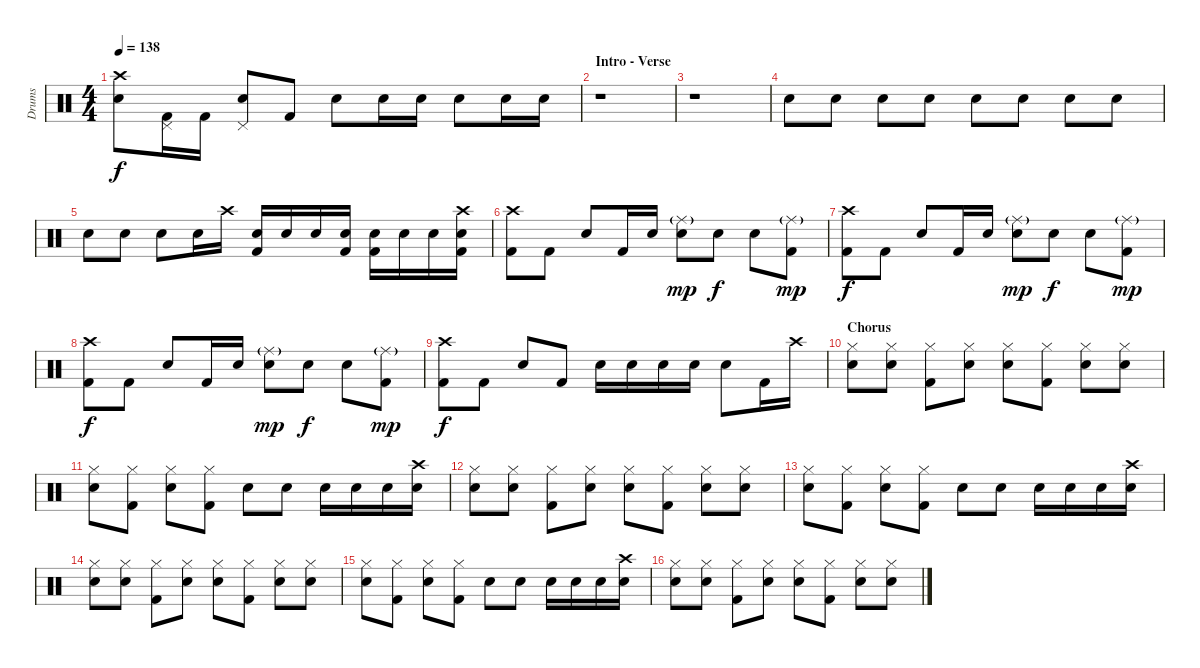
\track ("Drums" "Drums") {instrument percussion}
\staff {score}
\articulation defaults
\ts (4 4)
\tempo 138
\clef neutral
\ks c
("Crash high (hit)" "Electric Snare (hit)").8{dy f} ("Pedal Hi-Hat (hit)" "Kick (hit) 2").16 "Kick (hit) 2".16 ("Pedal Hi-Hat (hit)" "Electric Snare (hit)").8 "Kick (hit) 2".8 "Electric Snare (hit)".8 "Electric Snare (hit)".16 "Electric Snare (hit)".16 "Electric Snare (hit)".8 "Electric Snare (hit)".16 "Electric Snare (hit)".16 |
\section ("" "Intro - Verse")
r.1 |
r.1 |
"Electric Snare (hit)".8{volume 12} "Electric Snare (hit)".8 "Electric Snare (hit)".8 "Electric Snare (hit)".8 "Electric Snare (hit)".8 "Electric Snare (hit)".8 "Electric Snare (hit)".8 "Electric Snare (hit)".8 |
"Electric Snare (hit)".8 "Electric Snare (hit)".8 "Electric Snare (hit)".8 "Electric Snare (hit)".16 "Crash high (hit)".16 ("Electric Snare (hit)" "Kick (hit) 2").16 "Electric Snare (hit)".16 "Electric Snare (hit)".16 ("Electric Snare (hit)" "Kick (hit) 2").16 ("Electric Snare (hit)" "Kick (hit) 2").16 "Electric Snare (hit)".16 "Electric Snare (hit)".16 ("Crash high (hit)" "Electric Snare (hit)" "Kick (hit) 2").16 |
("Crash high (hit)" "Kick (hit) 2").8 "Kick (hit) 2".8 "Electric Snare (hit)".8 "Kick (hit) 2".16 "Electric Snare (hit)".16 ("Ride (middle)"{g} "Electric Snare (hit)").8{dy mp} "Electric Snare (hit)".8{dy f} "Electric Snare (hit)".8 ("Ride (middle)"{g} "Kick (hit) 2").8{dy mp} |
("Crash high (hit)" "Kick (hit) 2").8{dy f} "Kick (hit) 2".8 "Electric Snare (hit)".8 "Kick (hit) 2".16 "Electric Snare (hit)".16 ("Ride (middle)"{g} "Electric Snare (hit)").8{dy mp} "Electric Snare (hit)".8{dy f} "Electric Snare (hit)".8 ("Ride (middle)"{g} "Kick (hit) 2").8{dy mp} |
("Crash high (hit)" "Kick (hit) 2").8{dy f} "Kick (hit) 2".8 "Electric Snare (hit)".8 "Kick (hit) 2".16 "Electric Snare (hit)".16 ("Ride (middle)"{g} "Electric Snare (hit)").8{dy mp} "Electric Snare (hit)".8{dy f} "Electric Snare (hit)".8 ("Ride (middle)"{g} "Kick (hit) 2").8{dy mp} |
("Crash high (hit)" "Kick (hit) 2").8{dy f} "Kick (hit) 2".8 "Electric Snare (hit)".8 "Kick (hit) 2".8 "Electric Snare (hit)".16 "Electric Snare (hit)".16 "Electric Snare (hit)".16 "Electric Snare (hit)".16 "Electric Snare (hit)".8 "Kick (hit) 2".16 "Crash high (hit)".16 |
\section ("" "Chorus")
("Hi-Hat (closed)" "Electric Snare (hit)").8 ("Hi-Hat (closed)" "Electric Snare (hit)").8 ("Hi-Hat (closed)" "Kick (hit) 2").8 ("Hi-Hat (closed)" "Electric Snare (hit)").8 ("Hi-Hat (closed)" "Electric Snare (hit)").8 ("Hi-Hat (closed)" "Kick (hit) 2").8 ("Hi-Hat (closed)" "Electric Snare (hit)").8 ("Hi-Hat (closed)" "Electric Snare (hit)").8 |
("Hi-Hat (closed)" "Electric Snare (hit)").8 ("Hi-Hat (closed)" "Kick (hit) 2").8 ("Hi-Hat (closed)" "Electric Snare (hit)").8 ("Hi-Hat (closed)" "Kick (hit) 2").8 "Electric Snare (hit)".8 "Electric Snare (hit)".8 "Electric Snare (hit)".16 "Electric Snare (hit)".16 "Electric Snare (hit)".16 ("Crash high (hit)" "Electric Snare (hit)").16 |
("Hi-Hat (closed)" "Electric Snare (hit)").8 ("Hi-Hat (closed)" "Electric Snare (hit)").8 ("Hi-Hat (closed)" "Kick (hit) 2").8 ("Hi-Hat (closed)" "Electric Snare (hit)").8 ("Hi-Hat (closed)" "Electric Snare (hit)").8 ("Hi-Hat (closed)" "Kick (hit) 2").8 ("Hi-Hat (closed)" "Electric Snare (hit)").8 ("Hi-Hat (closed)" "Electric Snare (hit)").8 |
("Hi-Hat (closed)" "Electric Snare (hit)").8 ("Hi-Hat (closed)" "Kick (hit) 2").8 ("Hi-Hat (closed)" "Electric Snare (hit)").8 ("Hi-Hat (closed)" "Kick (hit) 2").8 "Electric Snare (hit)".8 "Electric Snare (hit)".8 "Electric Snare (hit)".16 "Electric Snare (hit)".16 "Electric Snare (hit)".16 ("Crash high (hit)" "Electric Snare (hit)").16 |
("Hi-Hat (closed)" "Electric Snare (hit)").8 ("Hi-Hat (closed)" "Electric Snare (hit)").8 ("Hi-Hat (closed)" "Kick (hit) 2").8 ("Hi-Hat (closed)" "Electric Snare (hit)").8 ("Hi-Hat (closed)" "Electric Snare (hit)").8 ("Hi-Hat (closed)" "Kick (hit) 2").8 ("Hi-Hat (closed)" "Electric Snare (hit)").8 ("Hi-Hat (closed)" "Electric Snare (hit)").8 |
("Hi-Hat (closed)" "Electric Snare (hit)").8 ("Hi-Hat (closed)" "Kick (hit) 2").8 ("Hi-Hat (closed)" "Electric Snare (hit)").8 ("Hi-Hat (closed)" "Kick (hit) 2").8 "Electric Snare (hit)".8 "Electric Snare (hit)".8 "Electric Snare (hit)".16 "Electric Snare (hit)".16 "Electric Snare (hit)".16 ("Crash high (hit)" "Electric Snare (hit)").16 |
("Hi-Hat (closed)" "Electric Snare (hit)").8 ("Hi-Hat (closed)" "Electric Snare (hit)").8 ("Hi-Hat (closed)" "Kick (hit) 2").8 ("Hi-Hat (closed)" "Electric Snare (hit)").8 ("Hi-Hat (closed)" "Electric Snare (hit)").8 ("Hi-Hat (closed)" "Kick (hit) 2").8 ("Hi-Hat (closed)" "Electric Snare (hit)").8 ("Hi-Hat (closed)" "Electric Snare (hit)").8
